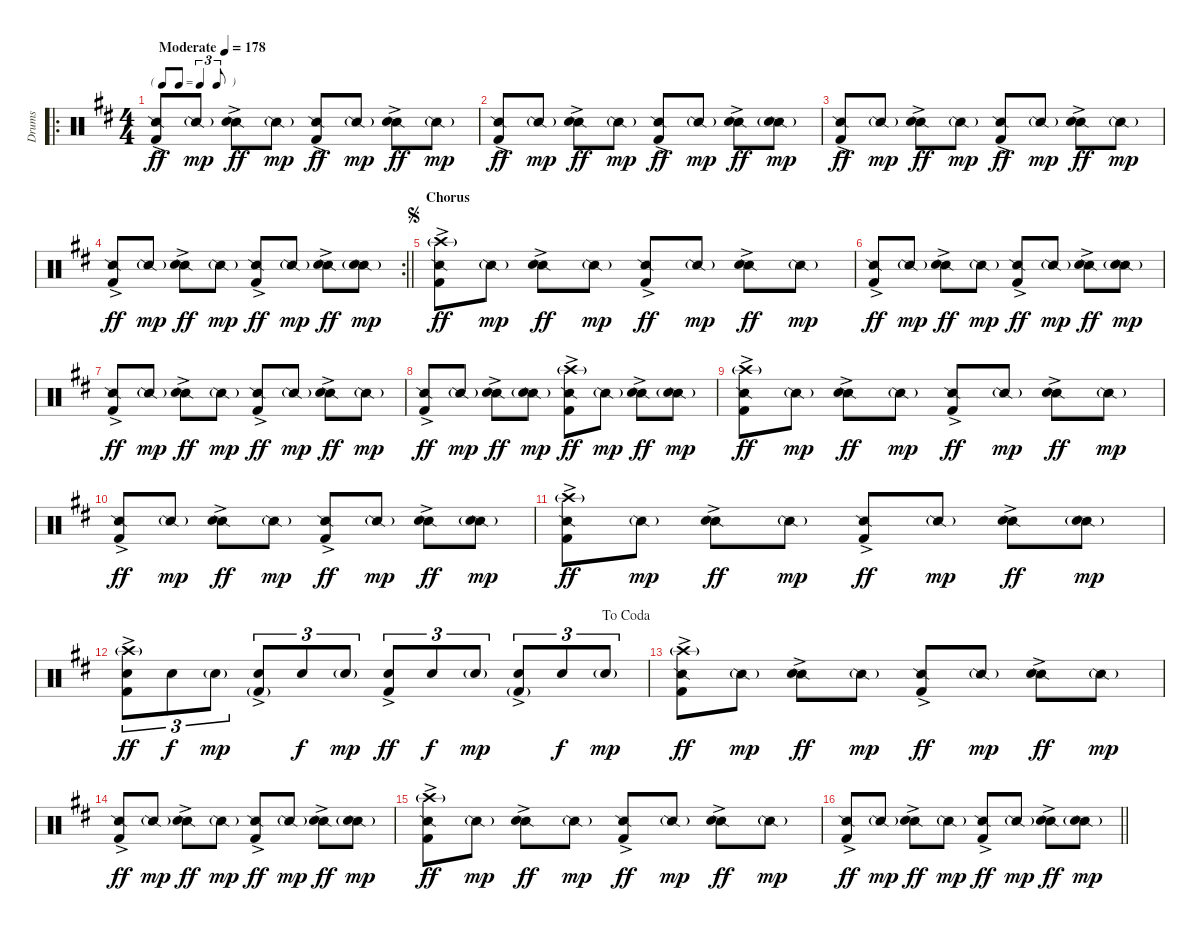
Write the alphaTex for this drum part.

\track ("Drums" "Drums") {instrument percussion}
\staff {score}
\articulation defaults
\ro
\ts (4 4)
\tf triplet8th
\tempo (178 "Moderate")
\clef neutral
\ks d
("Snare (side stick) 2" "Kick (hit) 2"{ac}).8{dy ff} "Snare (side stick) 2"{g}.8{dy mp} ("Snare (side stick) 2" "Snare (hit) 2"{ac}).8{dy ff} "Snare (side stick) 2"{g}.8{dy mp} ("Snare (side stick) 2" "Kick (hit) 2"{ac}).8{dy ff} "Snare (side stick) 2"{g}.8{dy mp} ("Snare (side stick) 2" "Snare (hit) 2"{ac}).8{dy ff} "Snare (side stick) 2"{g}.8{dy mp} |
("Snare (side stick) 2" "Kick (hit) 2"{ac}).8{dy ff} "Snare (side stick) 2"{g}.8{dy mp} ("Snare (side stick) 2" "Snare (hit) 2"{ac}).8{dy ff} "Snare (side stick) 2"{g}.8{dy mp} ("Snare (side stick) 2" "Kick (hit) 2"{ac}).8{dy ff} "Snare (side stick) 2"{g}.8{dy mp} ("Snare (side stick) 2" "Snare (hit) 2"{ac}).8{dy ff} ("Snare (side stick) 2"{g} "Snare (hit) 2").8{dy mp} |
("Snare (side stick) 2" "Kick (hit) 2"{ac}).8{dy ff} "Snare (side stick) 2"{g}.8{dy mp} ("Snare (side stick) 2" "Snare (hit) 2"{ac}).8{dy ff} "Snare (side stick) 2"{g}.8{dy mp} ("Snare (side stick) 2" "Kick (hit) 2"{ac}).8{dy ff} "Snare (side stick) 2"{g}.8{dy mp} ("Snare (side stick) 2" "Snare (hit) 2"{ac}).8{dy ff} "Snare (side stick) 2"{g}.8{dy mp} |
\rc 2
\barLineRight lightlight
("Snare (side stick) 2" "Kick (hit) 2"{ac}).8{dy ff} "Snare (side stick) 2"{g}.8{dy mp} ("Snare (side stick) 2" "Snare (hit) 2"{ac}).8{dy ff} "Snare (side stick) 2"{g}.8{dy mp} ("Snare (side stick) 2" "Kick (hit) 2"{ac}).8{dy ff} "Snare (side stick) 2"{g}.8{dy mp} ("Snare (side stick) 2" "Snare (hit) 2"{ac}).8{dy ff} ("Snare (side stick) 2"{g} "Snare (hit) 2").8{dy mp} |
\section ("" "Chorus")
\jump segno
("Snare (side stick) 2" "Crash high (hit)"{g} "Kick (hit) 2"{ac}).8{dy ff} "Snare (side stick) 2"{g}.8{dy mp} ("Snare (side stick) 2" "Snare (hit) 2"{ac}).8{dy ff} "Snare (side stick) 2"{g}.8{dy mp} ("Snare (side stick) 2" "Kick (hit) 2"{ac}).8{dy ff} "Snare (side stick) 2"{g}.8{dy mp} ("Snare (side stick) 2" "Snare (hit) 2"{ac}).8{dy ff} "Snare (side stick) 2"{g}.8{dy mp} |
("Snare (side stick) 2" "Kick (hit) 2"{ac}).8{dy ff} "Snare (side stick) 2"{g}.8{dy mp} ("Snare (side stick) 2" "Snare (hit) 2"{ac}).8{dy ff} "Snare (side stick) 2"{g}.8{dy mp} ("Snare (side stick) 2" "Kick (hit) 2"{ac}).8{dy ff} "Snare (side stick) 2"{g}.8{dy mp} ("Snare (side stick) 2" "Snare (hit) 2"{ac}).8{dy ff} ("Snare (side stick) 2"{g} "Snare (hit) 2").8{dy mp} |
("Snare (side stick) 2" "Kick (hit) 2"{ac}).8{dy ff} "Snare (side stick) 2"{g}.8{dy mp} ("Snare (side stick) 2" "Snare (hit) 2"{ac}).8{dy ff} "Snare (side stick) 2"{g}.8{dy mp} ("Snare (side stick) 2" "Kick (hit) 2"{ac}).8{dy ff} "Snare (side stick) 2"{g}.8{dy mp} ("Snare (side stick) 2" "Snare (hit) 2"{ac}).8{dy ff} "Snare (side stick) 2"{g}.8{dy mp} |
("Snare (side stick) 2" "Kick (hit) 2"{ac}).8{dy ff} "Snare (side stick) 2"{g}.8{dy mp} ("Snare (side stick) 2" "Snare (hit) 2"{ac}).8{dy ff} ("Snare (side stick) 2"{g} "Snare (hit) 2").8{dy mp} ("Snare (side stick) 2" "Crash high (hit)"{g} "Kick (hit) 2"{ac}).8{dy ff} "Snare (side stick) 2"{g}.8{dy mp} ("Snare (side stick) 2" "Snare (hit) 2"{ac}).8{dy ff} ("Snare (side stick) 2"{g} "Snare (hit) 2").8{dy mp} |
("Snare (side stick) 2" "Crash high (hit)"{g} "Kick (hit) 2"{ac}).8{dy ff} "Snare (side stick) 2"{g}.8{dy mp} ("Snare (side stick) 2" "Snare (hit) 2"{ac}).8{dy ff} "Snare (side stick) 2"{g}.8{dy mp} ("Snare (side stick) 2" "Kick (hit) 2"{ac}).8{dy ff} "Snare (side stick) 2"{g}.8{dy mp} ("Snare (side stick) 2" "Snare (hit) 2"{ac}).8{dy ff} "Snare (side stick) 2"{g}.8{dy mp} |
("Snare (side stick) 2" "Kick (hit) 2"{ac}).8{dy ff} "Snare (side stick) 2"{g}.8{dy mp} ("Snare (side stick) 2" "Snare (hit) 2"{ac}).8{dy ff} "Snare (side stick) 2"{g}.8{dy mp} ("Snare (side stick) 2" "Kick (hit) 2"{ac}).8{dy ff} "Snare (side stick) 2"{g}.8{dy mp} ("Snare (side stick) 2" "Snare (hit) 2"{ac}).8{dy ff} ("Snare (side stick) 2"{g} "Snare (hit) 2").8{dy mp} |
("Snare (side stick) 2" "Crash high (hit)"{g} "Kick (hit) 2"{ac}).8{dy ff} "Snare (side stick) 2"{g}.8{dy mp} ("Snare (side stick) 2" "Snare (hit) 2"{ac}).8{dy ff} "Snare (side stick) 2"{g}.8{dy mp} ("Snare (side stick) 2" "Kick (hit) 2"{ac}).8{dy ff} "Snare (side stick) 2"{g}.8{dy mp} ("Snare (side stick) 2" "Snare (hit) 2"{ac}).8{dy ff} ("Snare (side stick) 2"{g} "Snare (hit) 2").8{dy mp} |
\jump dacoda
("Crash high (hit)"{g} "Snare (hit) 2" "Kick (hit) 2"{ac}).8{tu (3 2) dy ff} "Snare (hit) 2".8{tu (3 2) dy f} "Snare (hit) 2"{g}.8{tu (3 2) dy mp} ("Snare (hit) 2"{ac} "Kick (hit) 2"{g}).8{tu (3 2)} "Snare (hit) 2".8{tu (3 2) dy f} "Snare (hit) 2"{g}.8{tu (3 2) dy mp} ("Snare (hit) 2" "Kick (hit) 2"{ac}).8{tu (3 2) dy ff} "Snare (hit) 2".8{tu (3 2) dy f} "Snare (hit) 2"{g}.8{tu (3 2) dy mp} ("Snare (hit) 2"{ac} "Kick (hit) 2"{g}).8{tu (3 2)} "Snare (hit) 2".8{tu (3 2) dy f} "Snare (hit) 2"{g}.8{tu (3 2) dy mp} |
("Snare (side stick) 2" "Crash high (hit)"{g} "Kick (hit) 2"{ac}).8{dy ff} "Snare (side stick) 2"{g}.8{dy mp} ("Snare (side stick) 2" "Snare (hit) 2"{ac}).8{dy ff} "Snare (side stick) 2"{g}.8{dy mp} ("Snare (side stick) 2" "Kick (hit) 2"{ac}).8{dy ff} "Snare (side stick) 2"{g}.8{dy mp} ("Snare (side stick) 2" "Snare (hit) 2"{ac}).8{dy ff} "Snare (side stick) 2"{g}.8{dy mp} |
("Snare (side stick) 2" "Kick (hit) 2"{ac}).8{dy ff} "Snare (side stick) 2"{g}.8{dy mp} ("Snare (side stick) 2" "Snare (hit) 2"{ac}).8{dy ff} "Snare (side stick) 2"{g}.8{dy mp} ("Snare (side stick) 2" "Kick (hit) 2"{ac}).8{dy ff} "Snare (side stick) 2"{g}.8{dy mp} ("Snare (side stick) 2" "Snare (hit) 2"{ac}).8{dy ff} ("Snare (side stick) 2"{g} "Snare (hit) 2").8{dy mp} |
("Snare (side stick) 2" "Crash high (hit)"{g} "Kick (hit) 2"{ac}).8{dy ff} "Snare (side stick) 2"{g}.8{dy mp} ("Snare (side stick) 2" "Snare (hit) 2"{ac}).8{dy ff} "Snare (side stick) 2"{g}.8{dy mp} ("Snare (side stick) 2" "Kick (hit) 2"{ac}).8{dy ff} "Snare (side stick) 2"{g}.8{dy mp} ("Snare (side stick) 2" "Snare (hit) 2"{ac}).8{dy ff} "Snare (side stick) 2"{g}.8{dy mp} |
\barLineRight lightlight
("Snare (side stick) 2" "Kick (hit) 2"{ac}).8{dy ff} "Snare (side stick) 2"{g}.8{dy mp} ("Snare (side stick) 2" "Snare (hit) 2"{ac}).8{dy ff} "Snare (side stick) 2"{g}.8{dy mp} ("Snare (side stick) 2" "Kick (hit) 2"{ac}).8{dy ff} "Snare (side stick) 2"{g}.8{dy mp} ("Snare (side stick) 2" "Snare (hit) 2"{ac}).8{dy ff} ("Snare (side stick) 2"{g} "Snare (hit) 2").8{dy mp}
